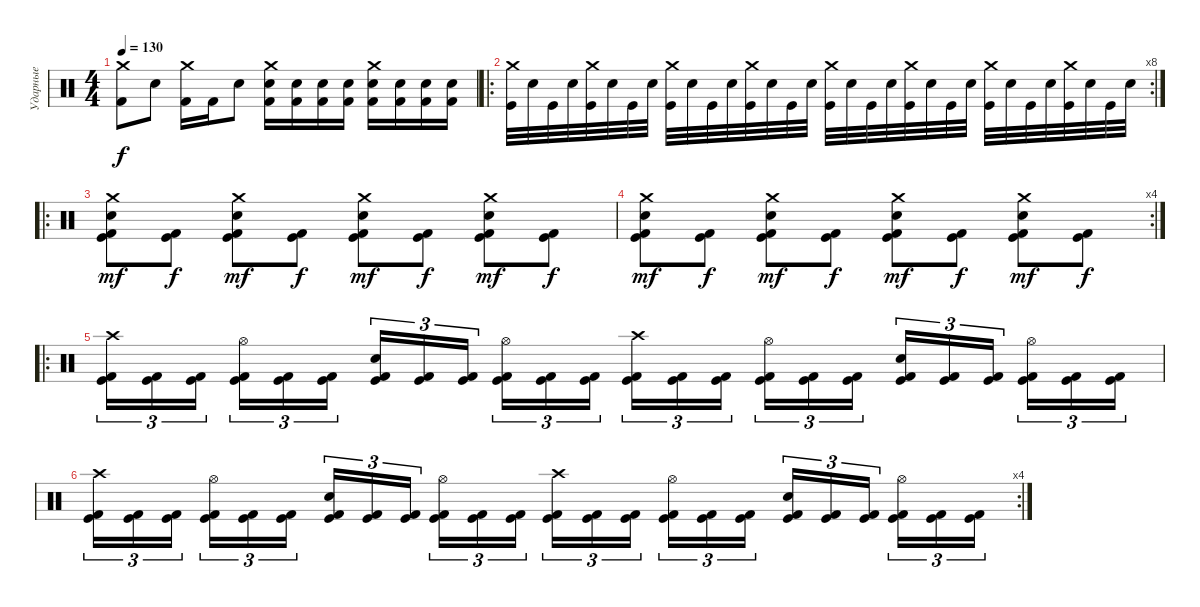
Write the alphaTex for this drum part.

\track ("Ударные" "Ударные") {instrument percussion}
\staff {score}
\articulation defaults
\ts (4 4)
\tempo 130
\clef neutral
\ks c
("Crash medium (hit)" "Kick (hit) 2").8{dy f} "Electric Snare (hit)".8 ("Crash medium (hit)" "Kick (hit) 2").16 "Kick (hit) 2".16 "Electric Snare (hit)".8 ("Crash medium (hit)" "Electric Snare (hit)" "Kick (hit) 2").16 ("Electric Snare (hit)" "Kick (hit) 2").16 ("Electric Snare (hit)" "Kick (hit) 2").16 ("Electric Snare (hit)" "Kick (hit) 2").16 ("Crash medium (hit)" "Electric Snare (hit)" "Kick (hit) 2").16 ("Electric Snare (hit)" "Kick (hit) 2").16 ("Electric Snare (hit)" "Kick (hit) 2").16 ("Electric Snare (hit)" "Kick (hit) 2").16 |
\ro
\rc 8
("Crash medium (hit)" "Kick (hit)").32 "Electric Snare (hit)".32 "Kick (hit)".32 "Electric Snare (hit)".32 ("Crash medium (hit)" "Kick (hit)").32 "Electric Snare (hit)".32 "Kick (hit)".32 "Electric Snare (hit)".32 ("Crash medium (hit)" "Kick (hit)").32 "Electric Snare (hit)".32 "Kick (hit)".32 "Electric Snare (hit)".32 ("Crash medium (hit)" "Kick (hit)").32 "Electric Snare (hit)".32 "Kick (hit)".32 "Electric Snare (hit)".32 ("Crash medium (hit)" "Kick (hit)").32 "Electric Snare (hit)".32 "Kick (hit)".32 "Electric Snare (hit)".32 ("Crash medium (hit)" "Kick (hit)").32 "Electric Snare (hit)".32 "Kick (hit)".32 "Electric Snare (hit)".32 ("Crash medium (hit)" "Kick (hit)").32 "Electric Snare (hit)".32 "Kick (hit)".32 "Electric Snare (hit)".32 ("Crash medium (hit)" "Kick (hit)").32 "Electric Snare (hit)".32 "Kick (hit)".32 "Electric Snare (hit)".32 |
\ro
("Kick (hit) 2" "Kick (hit)" "Electric Snare (hit)" "Crash medium (hit)").8{dy mf} ("Kick (hit) 2" "Kick (hit)").8{dy f} ("Kick (hit) 2" "Kick (hit)" "Electric Snare (hit)" "Crash medium (hit)").8{dy mf} ("Kick (hit) 2" "Kick (hit)").8{dy f} ("Kick (hit) 2" "Kick (hit)" "Electric Snare (hit)" "Crash medium (hit)").8{dy mf} ("Kick (hit) 2" "Kick (hit)").8{dy f} ("Kick (hit) 2" "Kick (hit)" "Electric Snare (hit)" "Crash medium (hit)").8{dy mf} ("Kick (hit) 2" "Kick (hit)").8{dy f} |
\rc 4
("Kick (hit) 2" "Kick (hit)" "Electric Snare (hit)" "Crash medium (hit)").8{dy mf} ("Kick (hit) 2" "Kick (hit)").8{dy f} ("Kick (hit) 2" "Kick (hit)" "Electric Snare (hit)" "Crash medium (hit)").8{dy mf} ("Kick (hit) 2" "Kick (hit)").8{dy f} ("Kick (hit) 2" "Kick (hit)" "Electric Snare (hit)" "Crash medium (hit)").8{dy mf} ("Kick (hit) 2" "Kick (hit)").8{dy f} ("Kick (hit) 2" "Kick (hit)" "Electric Snare (hit)" "Crash medium (hit)").8{dy mf} ("Kick (hit) 2" "Kick (hit)").8{dy f} |
\ro
("Crash high (hit)" "Kick (hit)" "Kick (hit) 2").16{tu (3 2)} ("Kick (hit)" "Kick (hit) 2").16{tu (3 2)} ("Kick (hit)" "Kick (hit) 2").16{tu (3 2) beam splitsecondary} ("Hi-Hat (open)" "Kick (hit)" "Kick (hit) 2").16{tu (3 2)} ("Kick (hit)" "Kick (hit) 2").16{tu (3 2)} ("Kick (hit)" "Kick (hit) 2").16{tu (3 2)} ("Electric Snare (hit)" "Kick (hit)" "Kick (hit) 2").16{tu (3 2)} ("Kick (hit)" "Kick (hit) 2").16{tu (3 2)} ("Kick (hit)" "Kick (hit) 2").16{tu (3 2) beam splitsecondary} ("Hi-Hat (open)" "Kick (hit)" "Kick (hit) 2").16{tu (3 2)} ("Kick (hit)" "Kick (hit) 2").16{tu (3 2)} ("Kick (hit)" "Kick (hit) 2").16{tu (3 2)} ("Crash high (hit)" "Kick (hit)" "Kick (hit) 2").16{tu (3 2)} ("Kick (hit)" "Kick (hit) 2").16{tu (3 2)} ("Kick (hit)" "Kick (hit) 2").16{tu (3 2) beam splitsecondary} ("Hi-Hat (open)" "Kick (hit)" "Kick (hit) 2").16{tu (3 2)} ("Kick (hit)" "Kick (hit) 2").16{tu (3 2)} ("Kick (hit)" "Kick (hit) 2").16{tu (3 2)} ("Electric Snare (hit)" "Kick (hit)" "Kick (hit) 2").16{tu (3 2)} ("Kick (hit)" "Kick (hit) 2").16{tu (3 2)} ("Kick (hit)" "Kick (hit) 2").16{tu (3 2) beam splitsecondary} ("Hi-Hat (open)" "Kick (hit)" "Kick (hit) 2").16{tu (3 2)} ("Kick (hit)" "Kick (hit) 2").16{tu (3 2)} ("Kick (hit)" "Kick (hit) 2").16{tu (3 2)} |
\rc 4
("Crash high (hit)" "Kick (hit)" "Kick (hit) 2").16{tu (3 2)} ("Kick (hit)" "Kick (hit) 2").16{tu (3 2)} ("Kick (hit)" "Kick (hit) 2").16{tu (3 2) beam splitsecondary} ("Hi-Hat (open)" "Kick (hit)" "Kick (hit) 2").16{tu (3 2)} ("Kick (hit)" "Kick (hit) 2").16{tu (3 2)} ("Kick (hit)" "Kick (hit) 2").16{tu (3 2)} ("Electric Snare (hit)" "Kick (hit)" "Kick (hit) 2").16{tu (3 2)} ("Kick (hit)" "Kick (hit) 2").16{tu (3 2)} ("Kick (hit)" "Kick (hit) 2").16{tu (3 2) beam splitsecondary} ("Hi-Hat (open)" "Kick (hit)" "Kick (hit) 2").16{tu (3 2)} ("Kick (hit)" "Kick (hit) 2").16{tu (3 2)} ("Kick (hit)" "Kick (hit) 2").16{tu (3 2)} ("Crash high (hit)" "Kick (hit)" "Kick (hit) 2").16{tu (3 2)} ("Kick (hit)" "Kick (hit) 2").16{tu (3 2)} ("Kick (hit)" "Kick (hit) 2").16{tu (3 2) beam splitsecondary} ("Hi-Hat (open)" "Kick (hit)" "Kick (hit) 2").16{tu (3 2)} ("Kick (hit)" "Kick (hit) 2").16{tu (3 2)} ("Kick (hit)" "Kick (hit) 2").16{tu (3 2)} ("Electric Snare (hit)" "Kick (hit)" "Kick (hit) 2").16{tu (3 2)} ("Kick (hit)" "Kick (hit) 2").16{tu (3 2)} ("Kick (hit)" "Kick (hit) 2").16{tu (3 2) beam splitsecondary} ("Hi-Hat (open)" "Kick (hit)" "Kick (hit) 2").16{tu (3 2)} ("Kick (hit)" "Kick (hit) 2").16{tu (3 2)} ("Kick (hit)" "Kick (hit) 2").16{tu (3 2)}
